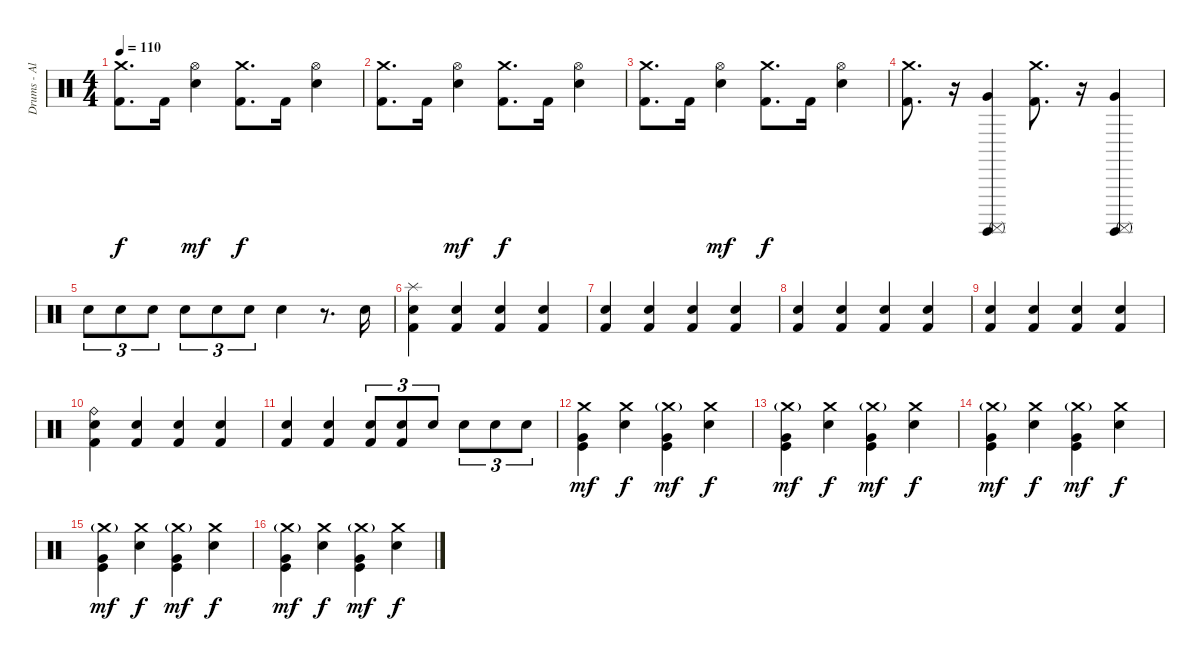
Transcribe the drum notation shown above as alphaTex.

\track ("Drums - Alan White" "Drums - Al") {instrument percussion}
\staff {score}
\articulation defaults
\ts (4 4)
\tempo 110
\clef neutral
\ks c
("Crash medium (hit)" "Kick (hit) 2").8{d dy f} "Kick (hit) 2".16 ("Hi-Hat (open)" "Snare (hit) 2").4{dy mf} ("Crash medium (hit)" "Kick (hit) 2").8{d dy f} "Kick (hit) 2".16 ("Hi-Hat (open)" "Snare (hit) 2").4 |
("Crash medium (hit)" "Kick (hit) 2").8{d} "Kick (hit) 2".16 ("Hi-Hat (open)" "Snare (hit) 2").4{dy mf} ("Crash medium (hit)" "Kick (hit) 2").8{d dy f} "Kick (hit) 2".16 ("Hi-Hat (open)" "Snare (hit) 2").4 |
("Crash medium (hit)" "Kick (hit) 2").8{d} "Kick (hit) 2".16 ("Hi-Hat (open)" "Snare (hit) 2").4{dy mf} ("Crash medium (hit)" "Kick (hit) 2").8{d dy f} "Kick (hit) 2".16 ("Hi-Hat (open)" "Snare (hit) 2").4 |
("Crash medium (hit)" "Kick (hit) 2").8{d} r.16 ("Surdo (hit)" "Surdo (mute)" "Very Low Tom (hit)").4 ("Crash medium (hit)" "Kick (hit) 2").8{d} r.16 ("Surdo (hit)" "Surdo (mute)" "Very Low Tom (hit)").4 |
"Snare (hit) 2".8{tu (3 2)} "Snare (hit) 2".8{tu (3 2)} "Snare (hit) 2".8{tu (3 2)} "Snare (hit) 2".8{tu (3 2)} "Snare (hit) 2".8{tu (3 2)} "Snare (hit) 2".8{tu (3 2)} "Snare (hit) 2".4 r.8{d} "Snare (hit) 2".16 |
("Splash (hit)" "Snare (hit) 2" "Kick (hit) 2").4 ("Snare (hit) 2" "Kick (hit) 2").4 ("Snare (hit) 2" "Kick (hit) 2").4 ("Snare (hit) 2" "Kick (hit) 2").4 |
("Snare (hit) 2" "Kick (hit) 2").4 ("Snare (hit) 2" "Kick (hit) 2").4 ("Snare (hit) 2" "Kick (hit) 2").4 ("Snare (hit) 2" "Kick (hit) 2").4 |
("Snare (hit) 2" "Kick (hit) 2").4 ("Snare (hit) 2" "Kick (hit) 2").4 ("Snare (hit) 2" "Kick (hit) 2").4 ("Snare (hit) 2" "Kick (hit) 2").4 |
("Snare (hit) 2" "Kick (hit) 2").4 ("Snare (hit) 2" "Kick (hit) 2").4 ("Snare (hit) 2" "Kick (hit) 2").4 ("Snare (hit) 2" "Kick (hit) 2").4 |
("Ride (bell)" "Snare (hit) 2" "Kick (hit) 2").4 ("Snare (hit) 2" "Kick (hit) 2").4 ("Snare (hit) 2" "Kick (hit) 2").4 ("Snare (hit) 2" "Kick (hit) 2").4 |
("Snare (hit) 2" "Kick (hit) 2").4 ("Snare (hit) 2" "Kick (hit) 2").4 ("Snare (hit) 2" "Kick (hit) 2").8{tu (3 2)} ("Snare (hit) 2" "Kick (hit) 2").8{tu (3 2)} "Snare (hit) 2".8{tu (3 2)} "Snare (hit) 2".8{tu (3 2)} "Snare (hit) 2".8{tu (3 2)} "Snare (hit) 2".8{tu (3 2)} |
("Crash medium (hit)" "Kick (hit)" "Very Low Tom (hit)").4{dy mf} ("Crash medium (hit)" "Electric Snare (hit)").4{dy f} ("Crash medium (hit)"{g} "Kick (hit)" "Very Low Tom (hit)").4{dy mf} ("Crash medium (hit)" "Electric Snare (hit)").4{dy f} |
("Crash medium (hit)"{g} "Kick (hit)" "Very Low Tom (hit)").4{dy mf} ("Crash medium (hit)" "Electric Snare (hit)").4{dy f} ("Crash medium (hit)"{g} "Kick (hit)" "Very Low Tom (hit)").4{dy mf} ("Crash medium (hit)" "Electric Snare (hit)").4{dy f} |
("Crash medium (hit)"{g} "Kick (hit)" "Very Low Tom (hit)").4{dy mf} ("Crash medium (hit)" "Electric Snare (hit)").4{dy f} ("Crash medium (hit)"{g} "Kick (hit)" "Very Low Tom (hit)").4{dy mf} ("Crash medium (hit)" "Electric Snare (hit)").4{dy f} |
("Crash medium (hit)"{g} "Kick (hit)" "Very Low Tom (hit)").4{dy mf} ("Crash medium (hit)" "Electric Snare (hit)").4{dy f} ("Crash medium (hit)"{g} "Kick (hit)" "Very Low Tom (hit)").4{dy mf} ("Crash medium (hit)" "Electric Snare (hit)").4{dy f} |
("Crash medium (hit)"{g} "Kick (hit)" "Very Low Tom (hit)").4{dy mf} ("Crash medium (hit)" "Electric Snare (hit)").4{dy f} ("Crash medium (hit)"{g} "Kick (hit)" "Very Low Tom (hit)").4{dy mf} ("Crash medium (hit)" "Electric Snare (hit)").4{dy f}
